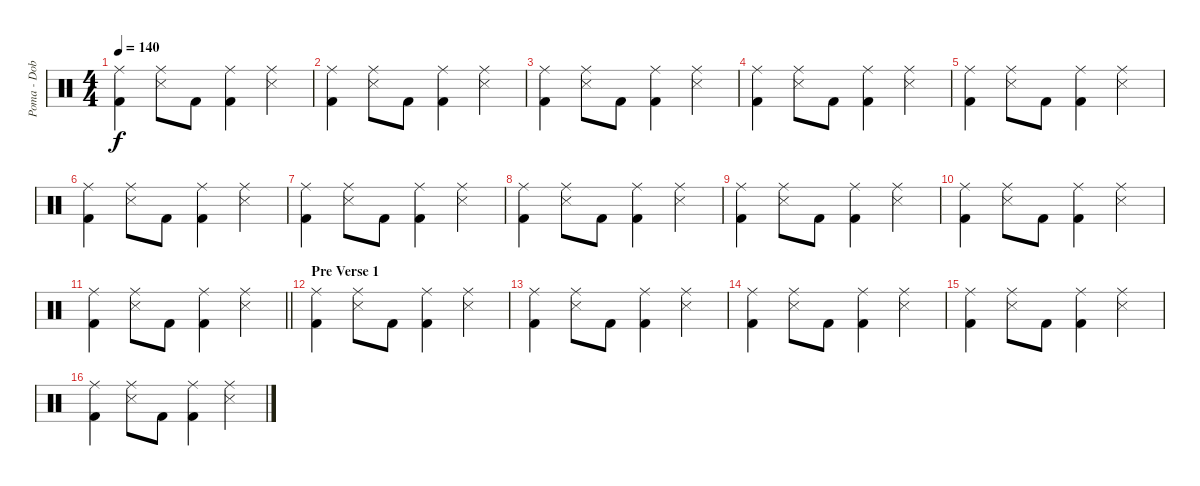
\track ("Poma - Dob" "Poma - Dob") {instrument percussion}
\staff {score}
\articulation defaults
\ts (4 4)
\tempo 140
\clef neutral
\ks c
("Ride (middle)" "Kick (hit) 2").4{dy f} ("Ride (middle)" "Snare (side stick) 3").8 "Kick (hit) 2".8 ("Ride (middle)" "Kick (hit) 2").4 ("Ride (middle)" "Snare (side stick) 3").4 |
("Ride (middle)" "Kick (hit) 2").4 ("Ride (middle)" "Snare (side stick) 3").8 "Kick (hit) 2".8 ("Ride (middle)" "Kick (hit) 2").4 ("Ride (middle)" "Snare (side stick) 3").4 |
("Ride (middle)" "Kick (hit) 2").4 ("Ride (middle)" "Snare (side stick) 3").8 "Kick (hit) 2".8 ("Ride (middle)" "Kick (hit) 2").4 ("Ride (middle)" "Snare (side stick) 3").4 |
("Ride (middle)" "Kick (hit) 2").4 ("Ride (middle)" "Snare (side stick) 3").8 "Kick (hit) 2".8 ("Ride (middle)" "Kick (hit) 2").4 ("Ride (middle)" "Snare (side stick) 3").4 |
("Ride (middle)" "Kick (hit) 2").4 ("Ride (middle)" "Snare (side stick) 3").8 "Kick (hit) 2".8 ("Ride (middle)" "Kick (hit) 2").4 ("Ride (middle)" "Snare (side stick) 3").4 |
("Ride (middle)" "Kick (hit) 2").4 ("Ride (middle)" "Snare (side stick) 3").8 "Kick (hit) 2".8 ("Ride (middle)" "Kick (hit) 2").4 ("Ride (middle)" "Snare (side stick) 3").4 |
("Ride (middle)" "Kick (hit) 2").4 ("Ride (middle)" "Snare (side stick) 3").8 "Kick (hit) 2".8 ("Ride (middle)" "Kick (hit) 2").4 ("Ride (middle)" "Snare (side stick) 3").4 |
("Ride (middle)" "Kick (hit) 2").4 ("Ride (middle)" "Snare (side stick) 3").8 "Kick (hit) 2".8 ("Ride (middle)" "Kick (hit) 2").4 ("Ride (middle)" "Snare (side stick) 3").4 |
("Ride (middle)" "Kick (hit) 2").4 ("Ride (middle)" "Snare (side stick) 3").8 "Kick (hit) 2".8 ("Ride (middle)" "Kick (hit) 2").4 ("Ride (middle)" "Snare (side stick) 3").4 |
("Ride (middle)" "Kick (hit) 2").4 ("Ride (middle)" "Snare (side stick) 3").8 "Kick (hit) 2".8 ("Ride (middle)" "Kick (hit) 2").4 ("Ride (middle)" "Snare (side stick) 3").4 |
\barLineRight lightlight
("Ride (middle)" "Kick (hit) 2").4 ("Ride (middle)" "Snare (side stick) 3").8 "Kick (hit) 2".8 ("Ride (middle)" "Kick (hit) 2").4 ("Ride (middle)" "Snare (side stick) 3").4 |
\section ("" "Pre Verse 1")
("Ride (middle)" "Kick (hit) 2").4 ("Ride (middle)" "Snare (side stick) 3").8 "Kick (hit) 2".8 ("Ride (middle)" "Kick (hit) 2").4 ("Ride (middle)" "Snare (side stick) 3").4 |
("Ride (middle)" "Kick (hit) 2").4 ("Ride (middle)" "Snare (side stick) 3").8 "Kick (hit) 2".8 ("Ride (middle)" "Kick (hit) 2").4 ("Ride (middle)" "Snare (side stick) 3").4 |
("Ride (middle)" "Kick (hit) 2").4 ("Ride (middle)" "Snare (side stick) 3").8 "Kick (hit) 2".8 ("Ride (middle)" "Kick (hit) 2").4 ("Ride (middle)" "Snare (side stick) 3").4 |
("Ride (middle)" "Kick (hit) 2").4 ("Ride (middle)" "Snare (side stick) 3").8 "Kick (hit) 2".8 ("Ride (middle)" "Kick (hit) 2").4 ("Ride (middle)" "Snare (side stick) 3").4 |
("Ride (middle)" "Kick (hit) 2").4 ("Ride (middle)" "Snare (side stick) 3").8 "Kick (hit) 2".8 ("Ride (middle)" "Kick (hit) 2").4 ("Ride (middle)" "Snare (side stick) 3").4
